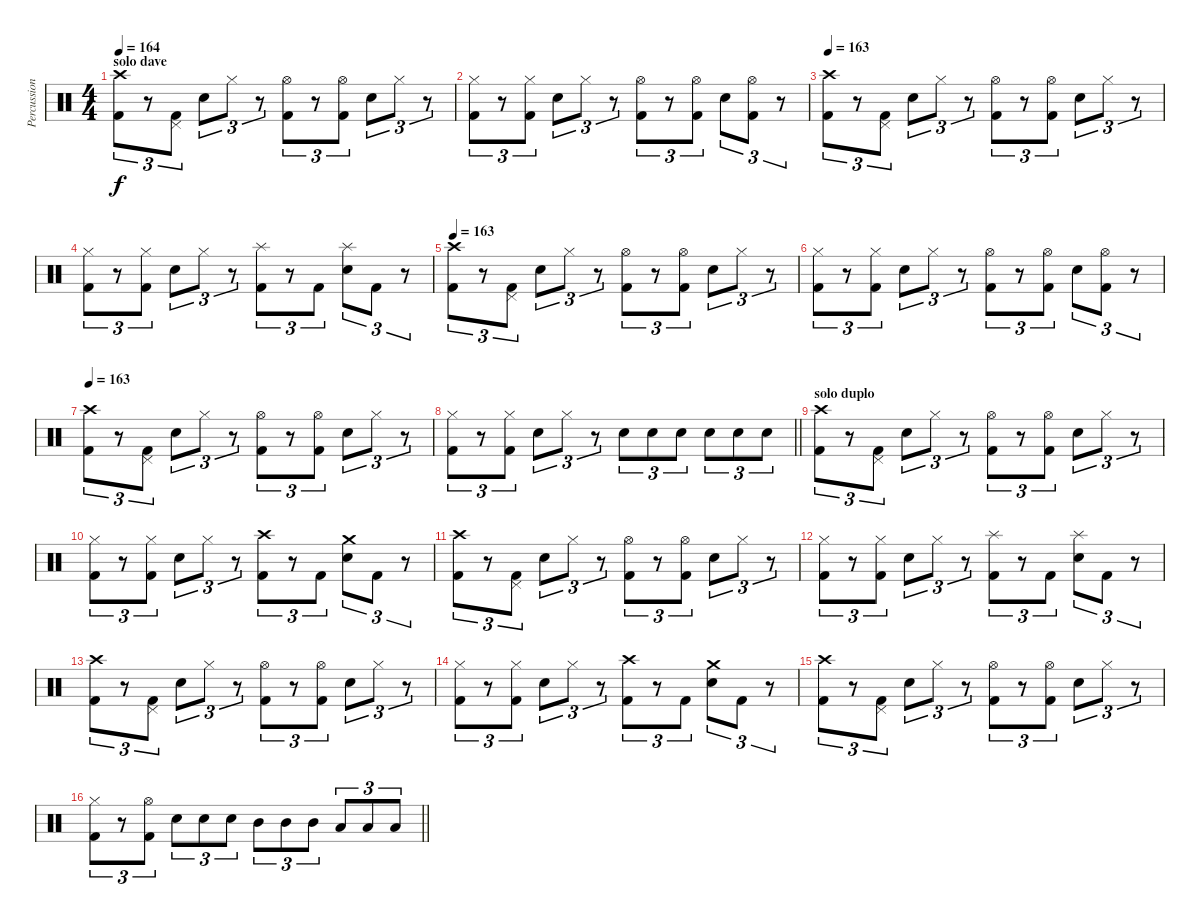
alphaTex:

\track ("Percussion" "Percussion") {instrument percussion}
\staff {score}
\articulation defaults
\ts (4 4)
\section ("" "solo dave")
\tempo 163
\tempo 164
\clef neutral
\ks c
("Crash high (hit)" "Kick (hit) 2").8{tu (3 2) dy f} r.8{tu (3 2)} ("Pedal Hi-Hat (hit)" "Kick (hit) 2").8{tu (3 2)} "Snare (hit) 2".8{tu (3 2)} "Hi-Hat (closed)".8{tu (3 2)} r.8{tu (3 2)} ("Hi-Hat (open)" "Kick (hit) 2").8{tu (3 2)} r.8{tu (3 2)} ("Hi-Hat (open)" "Kick (hit) 2").8{tu (3 2)} "Snare (hit) 2".8{tu (3 2)} "Hi-Hat (closed)".8{tu (3 2)} r.8{tu (3 2)} |
("Hi-Hat (closed)" "Kick (hit) 2").8{tu (3 2)} r.8{tu (3 2)} ("Hi-Hat (closed)" "Kick (hit) 2").8{tu (3 2)} "Snare (hit) 2".8{tu (3 2)} "Hi-Hat (closed)".8{tu (3 2)} r.8{tu (3 2)} ("Hi-Hat (open)" "Kick (hit) 2").8{tu (3 2)} r.8{tu (3 2)} ("Hi-Hat (open)" "Kick (hit) 2").8{tu (3 2)} "Snare (hit) 2".8{tu (3 2)} ("Hi-Hat (open)" "Kick (hit) 2").8{tu (3 2)} r.8{tu (3 2)} |
\tempo 163
("Crash high (hit)" "Kick (hit) 2").8{tu (3 2)} r.8{tu (3 2)} ("Pedal Hi-Hat (hit)" "Kick (hit) 2").8{tu (3 2)} "Snare (hit) 2".8{tu (3 2)} "Hi-Hat (closed)".8{tu (3 2)} r.8{tu (3 2)} ("Hi-Hat (open)" "Kick (hit) 2").8{tu (3 2)} r.8{tu (3 2)} ("Hi-Hat (open)" "Kick (hit) 2").8{tu (3 2)} "Snare (hit) 2".8{tu (3 2)} "Hi-Hat (closed)".8{tu (3 2)} r.8{tu (3 2)} |
("Hi-Hat (closed)" "Kick (hit) 2").8{tu (3 2)} r.8{tu (3 2)} ("Hi-Hat (closed)" "Kick (hit) 2").8{tu (3 2)} "Snare (hit) 2".8{tu (3 2)} "Hi-Hat (closed)".8{tu (3 2)} r.8{tu (3 2)} ("Splash (hit)" "Kick (hit) 2").8{tu (3 2)} r.8{tu (3 2)} "Kick (hit) 2".8{tu (3 2)} ("Splash (hit)" "Snare (hit) 2").8{tu (3 2)} "Kick (hit) 2".8{tu (3 2)} r.8{tu (3 2)} |
\tempo 163
("Crash high (hit)" "Kick (hit) 2").8{tu (3 2)} r.8{tu (3 2)} ("Pedal Hi-Hat (hit)" "Kick (hit) 2").8{tu (3 2)} "Snare (hit) 2".8{tu (3 2)} "Hi-Hat (closed)".8{tu (3 2)} r.8{tu (3 2)} ("Hi-Hat (open)" "Kick (hit) 2").8{tu (3 2)} r.8{tu (3 2)} ("Hi-Hat (open)" "Kick (hit) 2").8{tu (3 2)} "Snare (hit) 2".8{tu (3 2)} "Hi-Hat (closed)".8{tu (3 2)} r.8{tu (3 2)} |
("Hi-Hat (closed)" "Kick (hit) 2").8{tu (3 2)} r.8{tu (3 2)} ("Hi-Hat (closed)" "Kick (hit) 2").8{tu (3 2)} "Snare (hit) 2".8{tu (3 2)} "Hi-Hat (closed)".8{tu (3 2)} r.8{tu (3 2)} ("Hi-Hat (open)" "Kick (hit) 2").8{tu (3 2)} r.8{tu (3 2)} ("Hi-Hat (open)" "Kick (hit) 2").8{tu (3 2)} "Snare (hit) 2".8{tu (3 2)} ("Hi-Hat (open)" "Kick (hit) 2").8{tu (3 2)} r.8{tu (3 2)} |
\tempo 163
("Crash high (hit)" "Kick (hit) 2").8{tu (3 2)} r.8{tu (3 2)} ("Pedal Hi-Hat (hit)" "Kick (hit) 2").8{tu (3 2)} "Snare (hit) 2".8{tu (3 2)} "Hi-Hat (closed)".8{tu (3 2)} r.8{tu (3 2)} ("Hi-Hat (open)" "Kick (hit) 2").8{tu (3 2)} r.8{tu (3 2)} ("Hi-Hat (open)" "Kick (hit) 2").8{tu (3 2)} "Snare (hit) 2".8{tu (3 2)} "Hi-Hat (closed)".8{tu (3 2)} r.8{tu (3 2)} |
\barLineRight lightlight
("Hi-Hat (closed)" "Kick (hit) 2").8{tu (3 2)} r.8{tu (3 2)} ("Hi-Hat (closed)" "Kick (hit) 2").8{tu (3 2)} "Snare (hit) 2".8{tu (3 2)} "Hi-Hat (closed)".8{tu (3 2)} r.8{tu (3 2)} "Snare (hit) 2".8{tu (3 2)} "Snare (hit) 2".8{tu (3 2)} "Snare (hit) 2".8{tu (3 2)} "Snare (hit) 2".8{tu (3 2)} "Snare (hit) 2".8{tu (3 2)} "Snare (hit) 2".8{tu (3 2)} |
\section ("" "solo duplo")
("Crash high (hit)" "Kick (hit) 2").8{tu (3 2)} r.8{tu (3 2)} ("Pedal Hi-Hat (hit)" "Kick (hit) 2").8{tu (3 2)} "Snare (hit) 2".8{tu (3 2)} "Hi-Hat (closed)".8{tu (3 2)} r.8{tu (3 2)} ("Hi-Hat (open)" "Kick (hit) 2").8{tu (3 2)} r.8{tu (3 2)} ("Hi-Hat (open)" "Kick (hit) 2").8{tu (3 2)} "Snare (hit) 2".8{tu (3 2)} "Hi-Hat (closed)".8{tu (3 2)} r.8{tu (3 2)} |
("Hi-Hat (closed)" "Kick (hit) 2").8{tu (3 2)} r.8{tu (3 2)} ("Hi-Hat (closed)" "Kick (hit) 2").8{tu (3 2)} "Snare (hit) 2".8{tu (3 2)} "Hi-Hat (closed)".8{tu (3 2)} r.8{tu (3 2)} ("Crash high (hit)" "Kick (hit) 2").8{tu (3 2)} r.8{tu (3 2)} "Kick (hit) 2".8{tu (3 2)} ("Crash medium (hit)" "Snare (hit) 2").8{tu (3 2)} "Kick (hit) 2".8{tu (3 2)} r.8{tu (3 2)} |
("Crash high (hit)" "Kick (hit) 2").8{tu (3 2)} r.8{tu (3 2)} ("Pedal Hi-Hat (hit)" "Kick (hit) 2").8{tu (3 2)} "Snare (hit) 2".8{tu (3 2)} "Hi-Hat (closed)".8{tu (3 2)} r.8{tu (3 2)} ("Hi-Hat (open)" "Kick (hit) 2").8{tu (3 2)} r.8{tu (3 2)} ("Hi-Hat (open)" "Kick (hit) 2").8{tu (3 2)} "Snare (hit) 2".8{tu (3 2)} "Hi-Hat (closed)".8{tu (3 2)} r.8{tu (3 2)} |
("Hi-Hat (closed)" "Kick (hit) 2").8{tu (3 2)} r.8{tu (3 2)} ("Hi-Hat (closed)" "Kick (hit) 2").8{tu (3 2)} "Snare (hit) 2".8{tu (3 2)} "Hi-Hat (closed)".8{tu (3 2)} r.8{tu (3 2)} ("Splash (hit)" "Kick (hit) 2").8{tu (3 2)} r.8{tu (3 2)} "Kick (hit) 2".8{tu (3 2)} ("Splash (hit)" "Snare (hit) 2").8{tu (3 2)} "Kick (hit) 2".8{tu (3 2)} r.8{tu (3 2)} |
("Crash high (hit)" "Kick (hit) 2").8{tu (3 2)} r.8{tu (3 2)} ("Pedal Hi-Hat (hit)" "Kick (hit) 2").8{tu (3 2)} "Snare (hit) 2".8{tu (3 2)} "Hi-Hat (closed)".8{tu (3 2)} r.8{tu (3 2)} ("Hi-Hat (open)" "Kick (hit) 2").8{tu (3 2)} r.8{tu (3 2)} ("Hi-Hat (open)" "Kick (hit) 2").8{tu (3 2)} "Snare (hit) 2".8{tu (3 2)} "Hi-Hat (closed)".8{tu (3 2)} r.8{tu (3 2)} |
("Hi-Hat (closed)" "Kick (hit) 2").8{tu (3 2)} r.8{tu (3 2)} ("Hi-Hat (closed)" "Kick (hit) 2").8{tu (3 2)} "Snare (hit) 2".8{tu (3 2)} "Hi-Hat (closed)".8{tu (3 2)} r.8{tu (3 2)} ("Crash high (hit)" "Kick (hit) 2").8{tu (3 2)} r.8{tu (3 2)} "Kick (hit) 2".8{tu (3 2)} ("Crash medium (hit)" "Snare (hit) 2").8{tu (3 2)} "Kick (hit) 2".8{tu (3 2)} r.8{tu (3 2)} |
("Crash high (hit)" "Kick (hit) 2").8{tu (3 2)} r.8{tu (3 2)} ("Pedal Hi-Hat (hit)" "Kick (hit) 2").8{tu (3 2)} "Snare (hit) 2".8{tu (3 2)} "Hi-Hat (closed)".8{tu (3 2)} r.8{tu (3 2)} ("Hi-Hat (open)" "Kick (hit) 2").8{tu (3 2)} r.8{tu (3 2)} ("Hi-Hat (open)" "Kick (hit) 2").8{tu (3 2)} "Snare (hit) 2".8{tu (3 2)} "Hi-Hat (closed)".8{tu (3 2)} r.8{tu (3 2)} |
\barLineRight lightlight
("Hi-Hat (closed)" "Kick (hit) 2").8{tu (3 2)} r.8{tu (3 2)} ("Hi-Hat (open)" "Kick (hit) 2").8{tu (3 2)} "Snare (hit) 2".8{tu (3 2)} "Snare (hit) 2".8{tu (3 2)} "Snare (hit) 2".8{tu (3 2)} "Mid Tom (hit)".8{tu (3 2)} "Mid Tom (hit)".8{tu (3 2)} "Mid Tom (hit)".8{tu (3 2)} "Low Tom (hit)".8{tu (3 2)} "Low Tom (hit)".8{tu (3 2)} "Low Tom (hit)".8{tu (3 2)}
